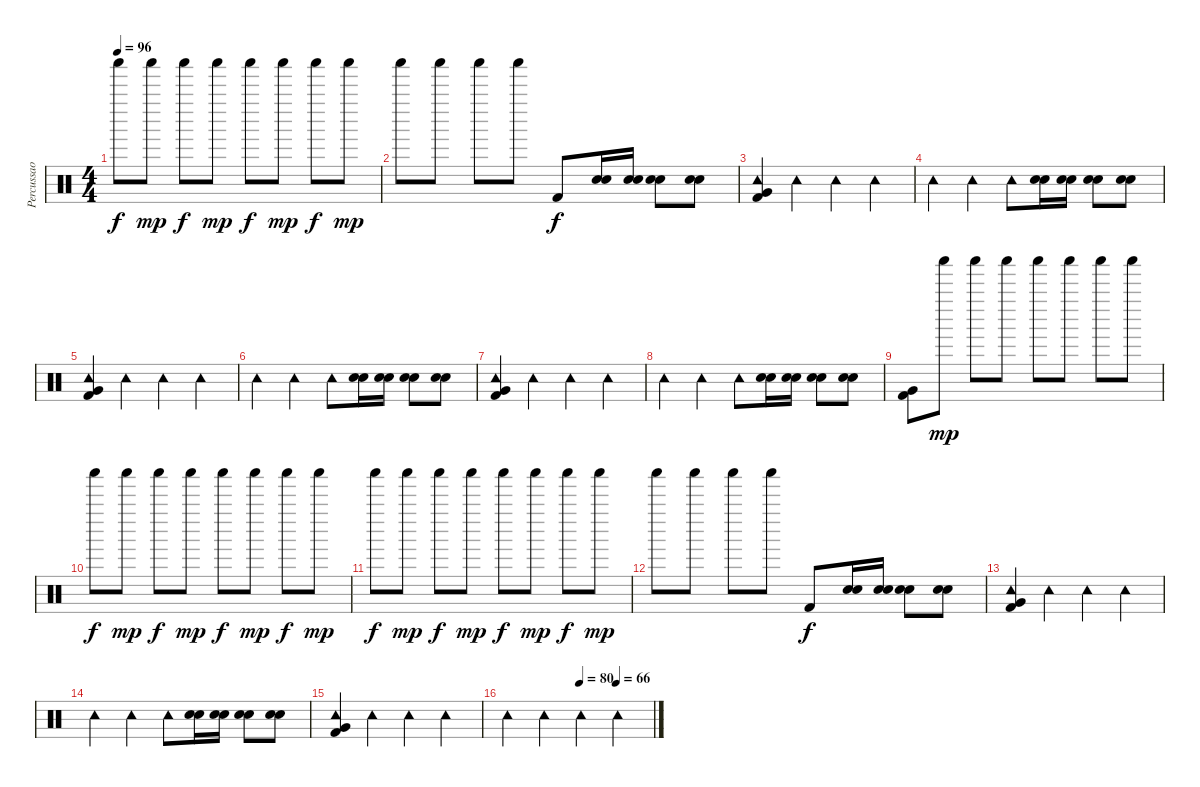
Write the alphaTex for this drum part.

\track ("Percussao" "Percussao") {instrument percussion}
\staff {score}
\articulation defaults
\ts (4 4)
\tempo 96
\clef neutral
\ks c "Shaker (hit)".8{dy f volume 4} "Shaker (hit)".8{dy mp} "Shaker (hit)".8{dy f} "Shaker (hit)".8{dy mp} "Shaker (hit)".8{dy f} "Shaker (hit)".8{dy mp} "Shaker (hit)".8{dy f} "Shaker (hit)".8{dy mp}
|
"Shaker (hit)".8 "Shaker (hit)".8 "Shaker (hit)".8 "Shaker (hit)".8 "Kick (hit) 2".8{dy f volume 13} ("Electric Snare (hit)" "Snare (hit) 2").16 ("Electric Snare (hit)" "Snare (hit) 2").16 ("Electric Snare (hit)" "Snare (hit) 2").8 ("Electric Snare (hit)" "Snare (hit) 2").8 |
("Tambourine (hit)" "Very Low Tom (hit)" "Kick (hit) 2").4 "Tambourine (hit)".4 "Tambourine (hit)".4 "Tambourine (hit)".4 |
"Tambourine (hit)".4 "Tambourine (hit)".4 "Tambourine (hit)".8 ("Electric Snare (hit)" "Snare (hit) 2").16 ("Electric Snare (hit)" "Snare (hit) 2").16 ("Electric Snare (hit)" "Snare (hit) 2").8 ("Electric Snare (hit)" "Snare (hit) 2").8 |
("Tambourine (hit)" "Very Low Tom (hit)" "Kick (hit) 2").4 "Tambourine (hit)".4 "Tambourine (hit)".4 "Tambourine (hit)".4 |
"Tambourine (hit)".4 "Tambourine (hit)".4 "Tambourine (hit)".8 ("Electric Snare (hit)" "Snare (hit) 2").16 ("Electric Snare (hit)" "Snare (hit) 2").16 ("Electric Snare (hit)" "Snare (hit) 2").8 ("Electric Snare (hit)" "Snare (hit) 2").8 |
("Tambourine (hit)" "Very Low Tom (hit)" "Kick (hit) 2").4 "Tambourine (hit)".4 "Tambourine (hit)".4 "Tambourine (hit)".4 |
"Tambourine (hit)".4 "Tambourine (hit)".4 "Tambourine (hit)".8 ("Electric Snare (hit)" "Snare (hit) 2").16 ("Electric Snare (hit)" "Snare (hit) 2").16 ("Electric Snare (hit)" "Snare (hit) 2").8 ("Electric Snare (hit)" "Snare (hit) 2").8 |
("Very Low Tom (hit)" "Kick (hit) 2").8 "Shaker (hit)".8{dy mp volume 7} "Shaker (hit)".8 "Shaker (hit)".8 "Shaker (hit)".8 "Shaker (hit)".8 "Shaker (hit)".8 "Shaker (hit)".8 |
"Shaker (hit)".8{dy f volume 7} "Shaker (hit)".8{dy mp} "Shaker (hit)".8{dy f} "Shaker (hit)".8{dy mp} "Shaker (hit)".8{dy f} "Shaker (hit)".8{dy mp} "Shaker (hit)".8{dy f} "Shaker (hit)".8{dy mp} |
"Shaker (hit)".8{dy f volume 7} "Shaker (hit)".8{dy mp} "Shaker (hit)".8{dy f} "Shaker (hit)".8{dy mp} "Shaker (hit)".8{dy f} "Shaker (hit)".8{dy mp} "Shaker (hit)".8{dy f} "Shaker (hit)".8{dy mp} |
"Shaker (hit)".8 "Shaker (hit)".8 "Shaker (hit)".8 "Shaker (hit)".8 "Kick (hit) 2".8{dy f volume 13} ("Electric Snare (hit)" "Snare (hit) 2").16 ("Electric Snare (hit)" "Snare (hit) 2").16 ("Electric Snare (hit)" "Snare (hit) 2").8 ("Electric Snare (hit)" "Snare (hit) 2").8 |
("Tambourine (hit)" "Very Low Tom (hit)" "Kick (hit) 2").4 "Tambourine (hit)".4 "Tambourine (hit)".4 "Tambourine (hit)".4 |
"Tambourine (hit)".4 "Tambourine (hit)".4 "Tambourine (hit)".8 ("Electric Snare (hit)" "Snare (hit) 2").16 ("Electric Snare (hit)" "Snare (hit) 2").16 ("Electric Snare (hit)" "Snare (hit) 2").8 ("Electric Snare (hit)" "Snare (hit) 2").8 |
("Tambourine (hit)" "Very Low Tom (hit)" "Kick (hit) 2").4 "Tambourine (hit)".4 "Tambourine (hit)".4 "Tambourine (hit)".4 |
\tempo (80 0.5)
\tempo (66 0.75)
"Tambourine (hit)".4 "Tambourine (hit)".4 "Tambourine (hit)".4 "Tambourine (hit)".4
